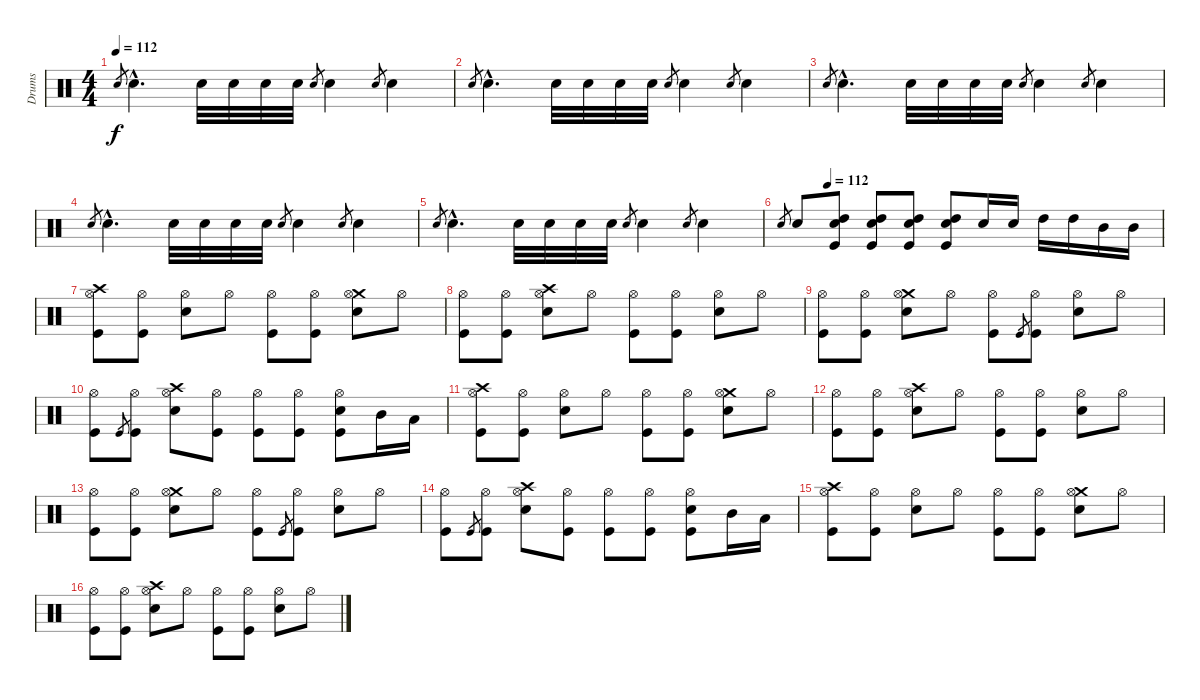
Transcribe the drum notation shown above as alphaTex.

\track ("Drums" "Drums") {instrument percussion}
\staff {score}
\articulation defaults
\ts (4 4)
\tempo 112
\clef neutral
\ks c "Snare (hit) 2".8{gr dy f} "Snare (hit) 2"{hac}.4{d} "Snare (hit) 2".32 "Snare (hit) 2".32 "Snare (hit) 2".32 "Snare (hit) 2".32 "Snare (hit) 2".8{gr} "Snare (hit) 2".4 "Snare (hit) 2".8{gr} "Snare (hit) 2".4
|
"Snare (hit) 2".8{gr} "Snare (hit) 2"{hac}.4{d} "Snare (hit) 2".32 "Snare (hit) 2".32 "Snare (hit) 2".32 "Snare (hit) 2".32 "Snare (hit) 2".8{gr} "Snare (hit) 2".4 "Snare (hit) 2".8{gr} "Snare (hit) 2".4 |
"Snare (hit) 2".8{gr} "Snare (hit) 2"{hac}.4{d} "Snare (hit) 2".32 "Snare (hit) 2".32 "Snare (hit) 2".32 "Snare (hit) 2".32 "Snare (hit) 2".8{gr} "Snare (hit) 2".4 "Snare (hit) 2".8{gr} "Snare (hit) 2".4 |
"Snare (hit) 2".8{gr} "Snare (hit) 2"{hac}.4{d} "Snare (hit) 2".32 "Snare (hit) 2".32 "Snare (hit) 2".32 "Snare (hit) 2".32 "Snare (hit) 2".8{gr} "Snare (hit) 2".4 "Snare (hit) 2".8{gr} "Snare (hit) 2".4 |
"Snare (hit) 2".8{gr} "Snare (hit) 2"{hac}.4{d} "Snare (hit) 2".32 "Snare (hit) 2".32 "Snare (hit) 2".32 "Snare (hit) 2".32 "Snare (hit) 2".8{gr} "Snare (hit) 2".4 "Snare (hit) 2".8{gr} "Snare (hit) 2".4 |
\tempo (112 0.125)
"Snare (hit) 2"{h}.8{gr} "Snare (hit) 2".8 ("Snare (hit) 2" "High Tom (hit)" "Kick (hit)").8{volume 16} ("Snare (hit) 2" "High Tom (hit)" "Kick (hit)").8 ("Snare (hit) 2" "High Tom (hit)" "Kick (hit)").8 ("Snare (hit) 2" "High Tom (hit)" "Kick (hit)").8 "Snare (hit) 2".16 "Snare (hit) 2".16 "High Tom (hit)".16 "High Tom (hit)".16 "Mid Tom (hit)".16 "Mid Tom (hit)".16 |
("Crash high (hit)" "Hi-Hat (open)" "Kick (hit)").8 ("Hi-Hat (open)" "Kick (hit)").8 ("Hi-Hat (open)" "Snare (hit) 2").8 "Hi-Hat (open)".8 ("Hi-Hat (open)" "Kick (hit)").8 ("Hi-Hat (open)" "Kick (hit)").8 ("Crash medium (hit)" "Hi-Hat (open)" "Snare (hit) 2").8 "Hi-Hat (open)".8 |
("Hi-Hat (open)" "Kick (hit)").8 ("Hi-Hat (open)" "Kick (hit)").8 ("Crash high (hit)" "Hi-Hat (open)" "Snare (hit) 2").8 "Hi-Hat (open)".8 ("Hi-Hat (open)" "Kick (hit)").8 ("Hi-Hat (open)" "Kick (hit)").8 ("Hi-Hat (open)" "Snare (hit) 2").8 "Hi-Hat (open)".8 |
("Hi-Hat (open)" "Kick (hit)").8 ("Hi-Hat (open)" "Kick (hit)").8 ("Crash medium (hit)" "Hi-Hat (open)" "Snare (hit) 2").8 "Hi-Hat (open)".8 ("Hi-Hat (open)" "Kick (hit)").8 "Kick (hit)".8{gr} ("Hi-Hat (open)" "Kick (hit)").8 ("Hi-Hat (open)" "Snare (hit) 2").8 "Hi-Hat (open)".8 |
("Hi-Hat (open)" "Kick (hit)").8 "Kick (hit)".8{gr} ("Hi-Hat (open)" "Kick (hit)").8 ("Crash high (hit)" "Hi-Hat (open)" "Snare (hit) 2").8 ("Hi-Hat (open)" "Kick (hit)").8 ("Hi-Hat (open)" "Kick (hit)").8 ("Hi-Hat (open)" "Kick (hit)").8 ("Hi-Hat (open)" "Snare (hit) 2" "Kick (hit)").8 "Mid Tom (hit)".16 "Low Tom (hit)".16 |
("Crash high (hit)" "Hi-Hat (open)" "Kick (hit)").8 ("Hi-Hat (open)" "Kick (hit)").8 ("Hi-Hat (open)" "Snare (hit) 2").8 "Hi-Hat (open)".8 ("Hi-Hat (open)" "Kick (hit)").8 ("Hi-Hat (open)" "Kick (hit)").8 ("Crash medium (hit)" "Hi-Hat (open)" "Snare (hit) 2").8 "Hi-Hat (open)".8 |
("Hi-Hat (open)" "Kick (hit)").8 ("Hi-Hat (open)" "Kick (hit)").8 ("Crash high (hit)" "Hi-Hat (open)" "Snare (hit) 2").8 "Hi-Hat (open)".8 ("Hi-Hat (open)" "Kick (hit)").8 ("Hi-Hat (open)" "Kick (hit)").8 ("Hi-Hat (open)" "Snare (hit) 2").8 "Hi-Hat (open)".8 |
("Hi-Hat (open)" "Kick (hit)").8 ("Hi-Hat (open)" "Kick (hit)").8 ("Crash medium (hit)" "Hi-Hat (open)" "Snare (hit) 2").8 "Hi-Hat (open)".8 ("Hi-Hat (open)" "Kick (hit)").8 "Kick (hit)".8{gr} ("Hi-Hat (open)" "Kick (hit)").8 ("Hi-Hat (open)" "Snare (hit) 2").8 "Hi-Hat (open)".8 |
("Hi-Hat (open)" "Kick (hit)").8 "Kick (hit)".8{gr} ("Hi-Hat (open)" "Kick (hit)").8 ("Crash high (hit)" "Hi-Hat (open)" "Snare (hit) 2").8 ("Hi-Hat (open)" "Kick (hit)").8 ("Hi-Hat (open)" "Kick (hit)").8 ("Hi-Hat (open)" "Kick (hit)").8 ("Hi-Hat (open)" "Snare (hit) 2" "Kick (hit)").8 "Mid Tom (hit)".16 "Low Tom (hit)".16 |
("Crash high (hit)" "Hi-Hat (open)" "Kick (hit)").8 ("Hi-Hat (open)" "Kick (hit)").8 ("Hi-Hat (open)" "Snare (hit) 2").8 "Hi-Hat (open)".8 ("Hi-Hat (open)" "Kick (hit)").8 ("Hi-Hat (open)" "Kick (hit)").8 ("Crash medium (hit)" "Hi-Hat (open)" "Snare (hit) 2").8 "Hi-Hat (open)".8 |
("Hi-Hat (open)" "Kick (hit)").8 ("Hi-Hat (open)" "Kick (hit)").8 ("Crash high (hit)" "Hi-Hat (open)" "Snare (hit) 2").8 "Hi-Hat (open)".8 ("Hi-Hat (open)" "Kick (hit)").8 ("Hi-Hat (open)" "Kick (hit)").8 ("Hi-Hat (open)" "Snare (hit) 2").8 "Hi-Hat (open)".8
